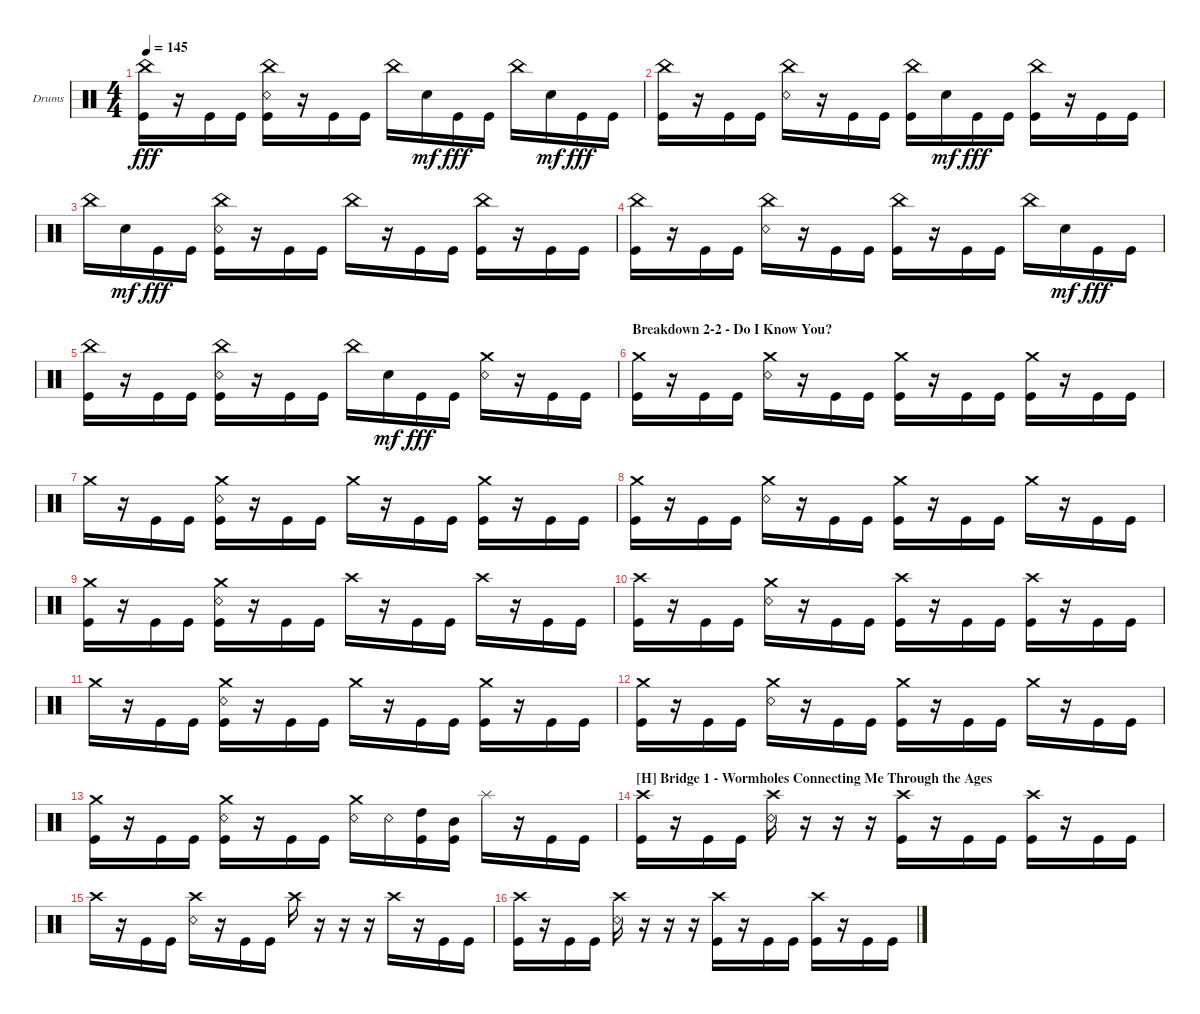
\defaultSystemsLayout 4
\bracketExtendMode groupsimilarinstruments
\firstSystemTrackNameOrientation horizontal
\otherSystemsTrackNameOrientation horizontal
\track ("Chris Khoury" "Drums") {instrument percussion}
\staff {score}
\articulation defaults
\ts (4 4)
\tempo 145
\clef neutral
\scale
0.333333
\ks c
("China (hit)" "Kick (hit)").16{dy fff} r.16 "Kick (hit)".16 "Kick (hit)".16 ("China (hit)" "Snare (rim shot)" "Kick (hit)").16 r.16 "Kick (hit)".16 "Kick (hit)".16 "China (hit)".16 "Snare (hit) 2".16{dy mf} "Kick (hit)".16{dy fff} "Kick (hit)".16 "China (hit)".16 "Snare (hit) 2".16{dy mf} "Kick (hit)".16{dy fff} "Kick (hit)".16 |
\scale
0.333333 ("China (hit)" "Kick (hit)").16 r.16 "Kick (hit)".16 "Kick (hit)".16 ("China (hit)" "Snare (rim shot)").16 r.16 "Kick (hit)".16 "Kick (hit)".16 ("China (hit)" "Kick (hit)").16 "Snare (hit) 2".16{dy mf} "Kick (hit)".16{dy fff} "Kick (hit)".16 ("China (hit)" "Kick (hit)").16 r.16 "Kick (hit)".16 "Kick (hit)".16 |
\scale
0.333333 "China (hit)".16 "Snare (hit) 2".16{dy mf} "Kick (hit)".16{dy fff} "Kick (hit)".16 ("China (hit)" "Snare (rim shot)" "Kick (hit)").16 r.16 "Kick (hit)".16 "Kick (hit)".16 "China (hit)".16 r.16 "Kick (hit)".16 "Kick (hit)".16 ("China (hit)" "Kick (hit)").16 r.16 "Kick (hit)".16 "Kick (hit)".16 |
\scale
0.333333 ("China (hit)" "Kick (hit)").16 r.16 "Kick (hit)".16 "Kick (hit)".16 ("China (hit)" "Snare (rim shot)").16 r.16 "Kick (hit)".16 "Kick (hit)".16 ("China (hit)" "Kick (hit)").16 r.16 "Kick (hit)".16 "Kick (hit)".16 "China (hit)".16 "Snare (hit) 2".16{dy mf} "Kick (hit)".16{dy fff} "Kick (hit)".16 |
\scale
0.333333 ("China (hit)" "Kick (hit)").16 r.16 "Kick (hit)".16 "Kick (hit)".16 ("China (hit)" "Snare (rim shot)" "Kick (hit)").16 r.16 "Kick (hit)".16 "Kick (hit)".16 "China (hit)".16 "Snare (hit) 2".16{dy mf} "Kick (hit)".16{dy fff} "Kick (hit)".16 ("Crash medium (hit)" "Snare (rim shot)").16 r.16 "Kick (hit)".16 "Kick (hit)".16 |
\section ("" "Breakdown 2-2 - Do I Know You?")
("Kick (hit)" "Crash medium (hit)").16 r.16 "Kick (hit)".16 "Kick (hit)".16 ("Snare (rim shot)" "Crash medium (hit)").16 r.16 "Kick (hit)".16 "Kick (hit)".16 ("Kick (hit)" "Crash medium (hit)").16 r.16 "Kick (hit)".16 "Kick (hit)".16 ("Kick (hit)" "Crash medium (hit)").16 r.16 "Kick (hit)".16 "Kick (hit)".16 |
"Crash medium (hit)".16 r.16 "Kick (hit)".16 "Kick (hit)".16 ("Kick (hit)" "Snare (rim shot)" "Crash medium (hit)").16 r.16 "Kick (hit)".16 "Kick (hit)".16 "Crash medium (hit)".16 r.16 "Kick (hit)".16 "Kick (hit)".16 ("Kick (hit)" "Crash medium (hit)").16 r.16 "Kick (hit)".16 "Kick (hit)".16 |
("Kick (hit)" "Crash medium (hit)").16 r.16 "Kick (hit)".16 "Kick (hit)".16 ("Snare (rim shot)" "Crash medium (hit)").16 r.16 "Kick (hit)".16 "Kick (hit)".16 ("Kick (hit)" "Crash medium (hit)").16 r.16 "Kick (hit)".16 "Kick (hit)".16 "Crash medium (hit)".16 r.16 "Kick (hit)".16 "Kick (hit)".16 |
("Kick (hit)" "Crash medium (hit)").16 r.16 "Kick (hit)".16 "Kick (hit)".16 ("Kick (hit)" "Snare (rim shot)" "Crash medium (hit)").16 r.16 "Kick (hit)".16 "Kick (hit)".16 "Crash high (hit)".16 r.16 "Kick (hit)".16 "Kick (hit)".16 "Crash high (hit)".16 r.16 "Kick (hit)".16 "Kick (hit)".16 |
("Kick (hit)" "Crash high (hit)").16 r.16 "Kick (hit)".16 "Kick (hit)".16 ("Snare (rim shot)" "Crash medium (hit)").16 r.16 "Kick (hit)".16 "Kick (hit)".16 ("Kick (hit)" "Crash high (hit)").16 r.16 "Kick (hit)".16 "Kick (hit)".16 ("Kick (hit)" "Crash high (hit)").16 r.16 "Kick (hit)".16 "Kick (hit)".16 |
"Crash medium (hit)".16 r.16 "Kick (hit)".16 "Kick (hit)".16 ("Kick (hit)" "Snare (rim shot)" "Crash medium (hit)").16 r.16 "Kick (hit)".16 "Kick (hit)".16 "Crash medium (hit)".16 r.16 "Kick (hit)".16 "Kick (hit)".16 ("Kick (hit)" "Crash medium (hit)").16 r.16 "Kick (hit)".16 "Kick (hit)".16 |
("Kick (hit)" "Crash medium (hit)").16 r.16 "Kick (hit)".16 "Kick (hit)".16 ("Snare (rim shot)" "Crash medium (hit)").16 r.16 "Kick (hit)".16 "Kick (hit)".16 ("Kick (hit)" "Crash medium (hit)").16 r.16 "Kick (hit)".16 "Kick (hit)".16 "Crash medium (hit)".16 r.16 "Kick (hit)".16 "Kick (hit)".16 |
("Kick (hit)" "Crash medium (hit)").16 r.16 "Kick (hit)".16 "Kick (hit)".16 ("Kick (hit)" "Snare (rim shot)" "Crash medium (hit)").16 r.16 "Kick (hit)".16 "Kick (hit)".16 ("Crash medium (hit)" "Snare (rim shot)").16 "Snare (rim shot)".16 ("Kick (hit)" "High Tom (hit)").16 ("Kick (hit)" "Mid Tom (hit)").16 "Splash (hit)".16 r.16 "Kick (hit)".16 "Kick (hit)".16 |
\section ("H" "Bridge 1 - Wormholes Connecting Me Through the Ages")
\scale
0.333333 ("Kick (hit)" "Crash high (hit)").16 r.16 "Kick (hit)".16 "Kick (hit)".16 ("Snare (rim shot)" "Crash high (hit)").16 r.16 r.16 r.16 ("Crash high (hit)" "Kick (hit)").16 r.16 "Kick (hit)".16 "Kick (hit)".16 ("Crash high (hit)" "Kick (hit)").16 r.16 "Kick (hit)".16 "Kick (hit)".16 |
\scale
0.333333 "Crash high (hit)".16 r.16 "Kick (hit)".16 "Kick (hit)".16 ("Snare (rim shot)" "Crash high (hit)").16 r.16 "Kick (hit)".16 "Kick (hit)".16 "Crash high (hit)".16 r.16 r.16 r.16 "Crash high (hit)".16 r.16 "Kick (hit)".16 "Kick (hit)".16 |
\scale
0.333333 ("Kick (hit)" "Crash high (hit)").16 r.16 "Kick (hit)".16 "Kick (hit)".16 ("Snare (rim shot)" "Crash high (hit)").16 r.16 r.16 r.16 ("Crash high (hit)" "Kick (hit)").16 r.16 "Kick (hit)".16 "Kick (hit)".16 ("Crash high (hit)" "Kick (hit)").16 r.16 "Kick (hit)".16 "Kick (hit)".16
